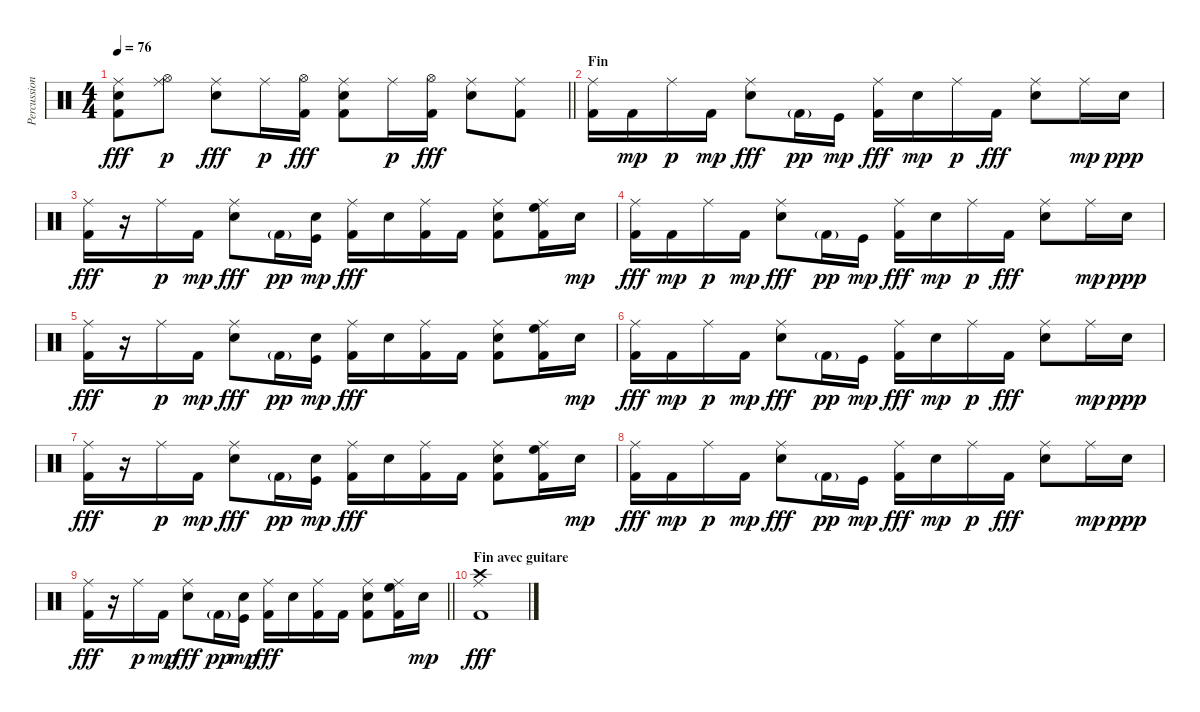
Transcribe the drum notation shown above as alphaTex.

\track ("Percussions" "Percussion") {instrument percussion}
\staff {score}
\articulation defaults
\ts (4 4)
\tempo 76
\clef neutral
\barLineRight lightlight
\ks c
("Ride (middle)" "Electric Snare (hit)" "Kick (hit) 2").8{dy fff} ("Ride (middle)" "Hi-Hat (open)").8{dy p} ("Ride (middle)" "Electric Snare (hit)").8{dy fff} "Ride (middle)".16{dy p} ("Hi-Hat (open)" "Kick (hit) 2").16{dy fff} ("Ride (middle)" "Electric Snare (hit)" "Kick (hit) 2").8 "Ride (middle)".16{dy p} ("Hi-Hat (open)" "Kick (hit) 2").16{dy fff} ("Ride (middle)" "Electric Snare (hit)").8 ("Ride (middle)" "Kick (hit) 2").8 |
\section ("" "Fin")
("Ride (middle)" "Kick (hit) 2").16 "Kick (hit) 2".16{dy mp} "Ride (middle)".16{dy p} "Kick (hit) 2".16{dy mp} ("Ride (middle)" "Electric Snare (hit)").8{dy fff} "Kick (hit) 2"{g}.16{dy pp} "Kick (hit)".16{dy mp} ("Ride (middle)" "Kick (hit) 2").16{dy fff} "Electric Snare (hit)".16{dy mp} "Ride (middle)".16{dy p} "Kick (hit) 2".16{dy fff} ("Ride (middle)" "Electric Snare (hit)").8 "Ride (middle)".16{dy mp} "Electric Snare (hit)".16{dy ppp} |
("Ride (middle)" "Kick (hit) 2").16{dy fff} r.16 "Ride (middle)".16{dy p} "Kick (hit) 2".16{dy mp} ("Ride (middle)" "Electric Snare (hit)").8{dy fff} "Kick (hit) 2"{g}.16{dy pp} ("Electric Snare (hit)" "Kick (hit)").16{dy mp} ("Ride (middle)" "Kick (hit) 2").16{dy fff} "Electric Snare (hit)".16 ("Ride (middle)" "Kick (hit) 2").16 "Kick (hit) 2".16 ("Ride (middle)" "Electric Snare (hit)" "Kick (hit) 2").8 ("Ride (middle)" "High Floor Tom (hit)" "Kick (hit) 2").16 "Electric Snare (hit)".16{dy mp} |
("Ride (middle)" "Kick (hit) 2").16{dy fff} "Kick (hit) 2".16{dy mp} "Ride (middle)".16{dy p} "Kick (hit) 2".16{dy mp} ("Ride (middle)" "Electric Snare (hit)").8{dy fff} "Kick (hit) 2"{g}.16{dy pp} "Kick (hit)".16{dy mp} ("Ride (middle)" "Kick (hit) 2").16{dy fff} "Electric Snare (hit)".16{dy mp} "Ride (middle)".16{dy p} "Kick (hit) 2".16{dy fff} ("Ride (middle)" "Electric Snare (hit)").8 "Ride (middle)".16{dy mp} "Electric Snare (hit)".16{dy ppp} |
("Ride (middle)" "Kick (hit) 2").16{dy fff} r.16 "Ride (middle)".16{dy p} "Kick (hit) 2".16{dy mp} ("Ride (middle)" "Electric Snare (hit)").8{dy fff} "Kick (hit) 2"{g}.16{dy pp} ("Electric Snare (hit)" "Kick (hit)").16{dy mp} ("Ride (middle)" "Kick (hit) 2").16{dy fff} "Electric Snare (hit)".16 ("Ride (middle)" "Kick (hit) 2").16 "Kick (hit) 2".16 ("Ride (middle)" "Electric Snare (hit)" "Kick (hit) 2").8 ("Ride (middle)" "High Floor Tom (hit)" "Kick (hit) 2").16 "Electric Snare (hit)".16{dy mp} |
("Ride (middle)" "Kick (hit) 2").16{dy fff volume 5} "Kick (hit) 2".16{dy mp} "Ride (middle)".16{dy p} "Kick (hit) 2".16{dy mp} ("Ride (middle)" "Electric Snare (hit)").8{dy fff} "Kick (hit) 2"{g}.16{dy pp} "Kick (hit)".16{dy mp} ("Ride (middle)" "Kick (hit) 2").16{dy fff} "Electric Snare (hit)".16{dy mp} "Ride (middle)".16{dy p} "Kick (hit) 2".16{dy fff} ("Ride (middle)" "Electric Snare (hit)").8 "Ride (middle)".16{dy mp} "Electric Snare (hit)".16{dy ppp} |
("Ride (middle)" "Kick (hit) 2").16{dy fff} r.16 "Ride (middle)".16{dy p} "Kick (hit) 2".16{dy mp} ("Ride (middle)" "Electric Snare (hit)").8{dy fff} "Kick (hit) 2"{g}.16{dy pp} ("Electric Snare (hit)" "Kick (hit)").16{dy mp} ("Ride (middle)" "Kick (hit) 2").16{dy fff} "Electric Snare (hit)".16 ("Ride (middle)" "Kick (hit) 2").16 "Kick (hit) 2".16 ("Ride (middle)" "Electric Snare (hit)" "Kick (hit) 2").8 ("Ride (middle)" "High Floor Tom (hit)" "Kick (hit) 2").16 "Electric Snare (hit)".16{dy mp} |
("Ride (middle)" "Kick (hit) 2").16{dy fff} "Kick (hit) 2".16{dy mp} "Ride (middle)".16{dy p} "Kick (hit) 2".16{dy mp} ("Ride (middle)" "Electric Snare (hit)").8{dy fff} "Kick (hit) 2"{g}.16{dy pp} "Kick (hit)".16{dy mp} ("Ride (middle)" "Kick (hit) 2").16{dy fff} "Electric Snare (hit)".16{dy mp} "Ride (middle)".16{dy p} "Kick (hit) 2".16{dy fff} ("Ride (middle)" "Electric Snare (hit)").8 "Ride (middle)".16{dy mp} "Electric Snare (hit)".16{dy ppp} |
\barLineRight lightlight
("Ride (middle)" "Kick (hit) 2").16{dy fff} r.16 "Ride (middle)".16{dy p} "Kick (hit) 2".16{dy mp} ("Ride (middle)" "Electric Snare (hit)").8{dy fff} "Kick (hit) 2"{g}.16{dy pp} ("Electric Snare (hit)" "Kick (hit)").16{dy mp} ("Ride (middle)" "Kick (hit) 2").16{dy fff} "Electric Snare (hit)".16 ("Ride (middle)" "Kick (hit) 2").16 "Kick (hit) 2".16 ("Ride (middle)" "Electric Snare (hit)" "Kick (hit) 2").8 ("Ride (middle)" "High Floor Tom (hit)" "Kick (hit) 2").16 "Electric Snare (hit)".16{dy mp} |
\section ("" "Fin avec guitare")
("Crash high (hit)" "Ride (middle)" "Kick (hit) 2").1{dy fff}
